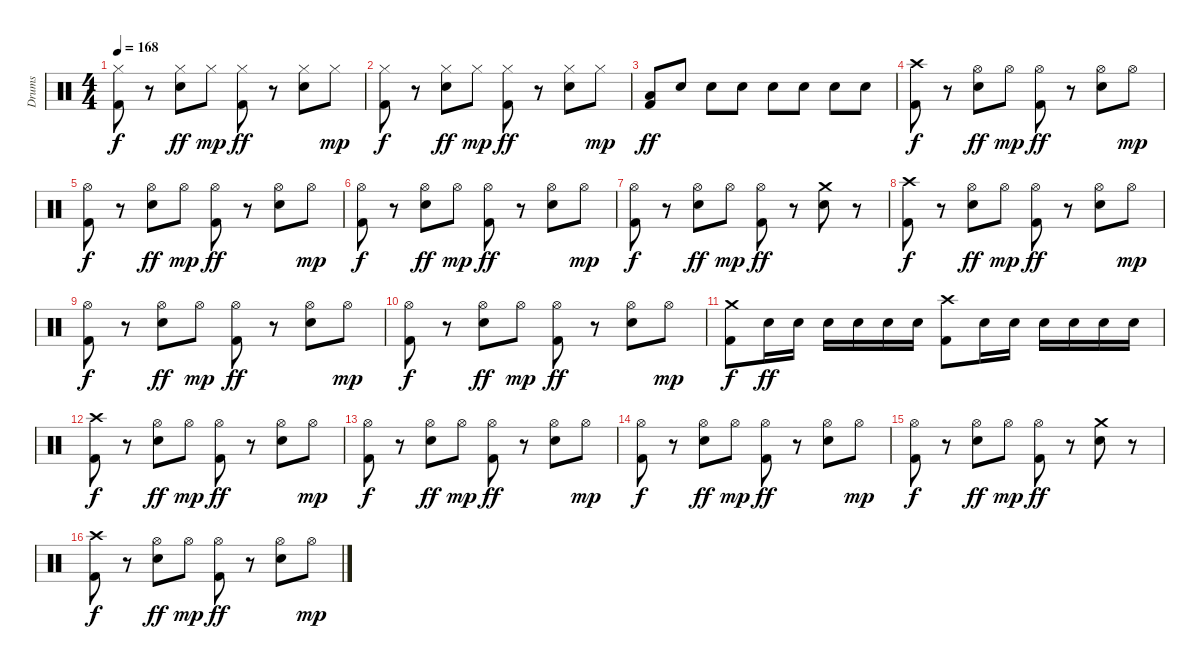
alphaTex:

\track ("Drums" "Drums") {instrument percussion}
\staff {score}
\articulation defaults
\ts (4 4)
\tempo 168
\clef neutral
\ks c
("Hi-Hat (closed)" "Kick (hit) 2").8{dy f} r.8 ("Hi-Hat (closed)" "Electric Snare (hit)").8{dy ff} "Hi-Hat (closed)".8{dy mp} ("Hi-Hat (closed)" "Kick (hit) 2").8{dy ff} r.8 ("Hi-Hat (closed)" "Electric Snare (hit)").8 "Hi-Hat (closed)".8{dy mp} |
("Hi-Hat (closed)" "Kick (hit) 2").8{dy f} r.8 ("Hi-Hat (closed)" "Electric Snare (hit)").8{dy ff} "Hi-Hat (closed)".8{dy mp} ("Hi-Hat (closed)" "Kick (hit) 2").8{dy ff} r.8 ("Hi-Hat (closed)" "Electric Snare (hit)").8 "Hi-Hat (closed)".8{dy mp} |
("Low Floor Tom (hit)" "Kick (hit) 2").8{dy ff} "Electric Snare (hit)".8 "Electric Snare (hit)".8 "Electric Snare (hit)".8 "Electric Snare (hit)".8 "Electric Snare (hit)".8 "Electric Snare (hit)".8 "Electric Snare (hit)".8 |
("Crash high (hit)" "Kick (hit) 2").8{dy f} r.8 ("Hi-Hat (open)" "Electric Snare (hit)").8{dy ff} "Hi-Hat (open)".8{dy mp} ("Hi-Hat (open)" "Kick (hit) 2").8{dy ff} r.8 ("Hi-Hat (open)" "Electric Snare (hit)").8 "Hi-Hat (open)".8{dy mp} |
("Hi-Hat (open)" "Kick (hit) 2").8{dy f} r.8 ("Hi-Hat (open)" "Electric Snare (hit)").8{dy ff} "Hi-Hat (open)".8{dy mp} ("Hi-Hat (open)" "Kick (hit) 2").8{dy ff} r.8 ("Hi-Hat (open)" "Electric Snare (hit)").8 "Hi-Hat (open)".8{dy mp} |
("Hi-Hat (open)" "Kick (hit) 2").8{dy f} r.8 ("Hi-Hat (open)" "Electric Snare (hit)").8{dy ff} "Hi-Hat (open)".8{dy mp} ("Hi-Hat (open)" "Kick (hit) 2").8{dy ff} r.8 ("Hi-Hat (open)" "Electric Snare (hit)").8 "Hi-Hat (open)".8{dy mp} |
("Hi-Hat (open)" "Kick (hit) 2").8{dy f} r.8 ("Hi-Hat (open)" "Electric Snare (hit)").8{dy ff} "Hi-Hat (open)".8{dy mp} ("Hi-Hat (open)" "Kick (hit) 2").8{dy ff} r.8 ("Crash medium (hit)" "Electric Snare (hit)").8 r.8 |
("Crash high (hit)" "Kick (hit) 2").8{dy f} r.8 ("Hi-Hat (open)" "Electric Snare (hit)").8{dy ff} "Hi-Hat (open)".8{dy mp} ("Hi-Hat (open)" "Kick (hit) 2").8{dy ff} r.8 ("Hi-Hat (open)" "Electric Snare (hit)").8 "Hi-Hat (open)".8{dy mp} |
("Hi-Hat (open)" "Kick (hit) 2").8{dy f} r.8 ("Hi-Hat (open)" "Electric Snare (hit)").8{dy ff} "Hi-Hat (open)".8{dy mp} ("Hi-Hat (open)" "Kick (hit) 2").8{dy ff} r.8 ("Hi-Hat (open)" "Electric Snare (hit)").8 "Hi-Hat (open)".8{dy mp} |
("Hi-Hat (open)" "Kick (hit) 2").8{dy f} r.8 ("Hi-Hat (open)" "Electric Snare (hit)").8{dy ff} "Hi-Hat (open)".8{dy mp} ("Hi-Hat (open)" "Kick (hit) 2").8{dy ff} r.8 ("Hi-Hat (open)" "Electric Snare (hit)").8 "Hi-Hat (open)".8{dy mp} |
("Crash medium (hit)" "Kick (hit) 2").8{dy f} "Electric Snare (hit)".16{dy ff} "Electric Snare (hit)".16 "Electric Snare (hit)".16 "Electric Snare (hit)".16 "Electric Snare (hit)".16 "Electric Snare (hit)".16 ("Crash high (hit)" "Kick (hit) 2").8 "Electric Snare (hit)".16 "Electric Snare (hit)".16 "Electric Snare (hit)".16 "Electric Snare (hit)".16 "Electric Snare (hit)".16 "Electric Snare (hit)".16 |
("Crash high (hit)" "Kick (hit) 2").8{dy f} r.8 ("Hi-Hat (open)" "Electric Snare (hit)").8{dy ff} "Hi-Hat (open)".8{dy mp} ("Hi-Hat (open)" "Kick (hit) 2").8{dy ff} r.8 ("Hi-Hat (open)" "Electric Snare (hit)").8 "Hi-Hat (open)".8{dy mp} |
("Hi-Hat (open)" "Kick (hit) 2").8{dy f} r.8 ("Hi-Hat (open)" "Electric Snare (hit)").8{dy ff} "Hi-Hat (open)".8{dy mp} ("Hi-Hat (open)" "Kick (hit) 2").8{dy ff} r.8 ("Hi-Hat (open)" "Electric Snare (hit)").8 "Hi-Hat (open)".8{dy mp} |
("Hi-Hat (open)" "Kick (hit) 2").8{dy f} r.8 ("Hi-Hat (open)" "Electric Snare (hit)").8{dy ff} "Hi-Hat (open)".8{dy mp} ("Hi-Hat (open)" "Kick (hit) 2").8{dy ff} r.8 ("Hi-Hat (open)" "Electric Snare (hit)").8 "Hi-Hat (open)".8{dy mp} |
("Hi-Hat (open)" "Kick (hit) 2").8{dy f} r.8 ("Hi-Hat (open)" "Electric Snare (hit)").8{dy ff} "Hi-Hat (open)".8{dy mp} ("Hi-Hat (open)" "Kick (hit) 2").8{dy ff} r.8 ("Crash medium (hit)" "Electric Snare (hit)").8 r.8 |
("Crash high (hit)" "Kick (hit) 2").8{dy f} r.8 ("Hi-Hat (open)" "Electric Snare (hit)").8{dy ff} "Hi-Hat (open)".8{dy mp} ("Hi-Hat (open)" "Kick (hit) 2").8{dy ff} r.8 ("Hi-Hat (open)" "Electric Snare (hit)").8 "Hi-Hat (open)".8{dy mp}
